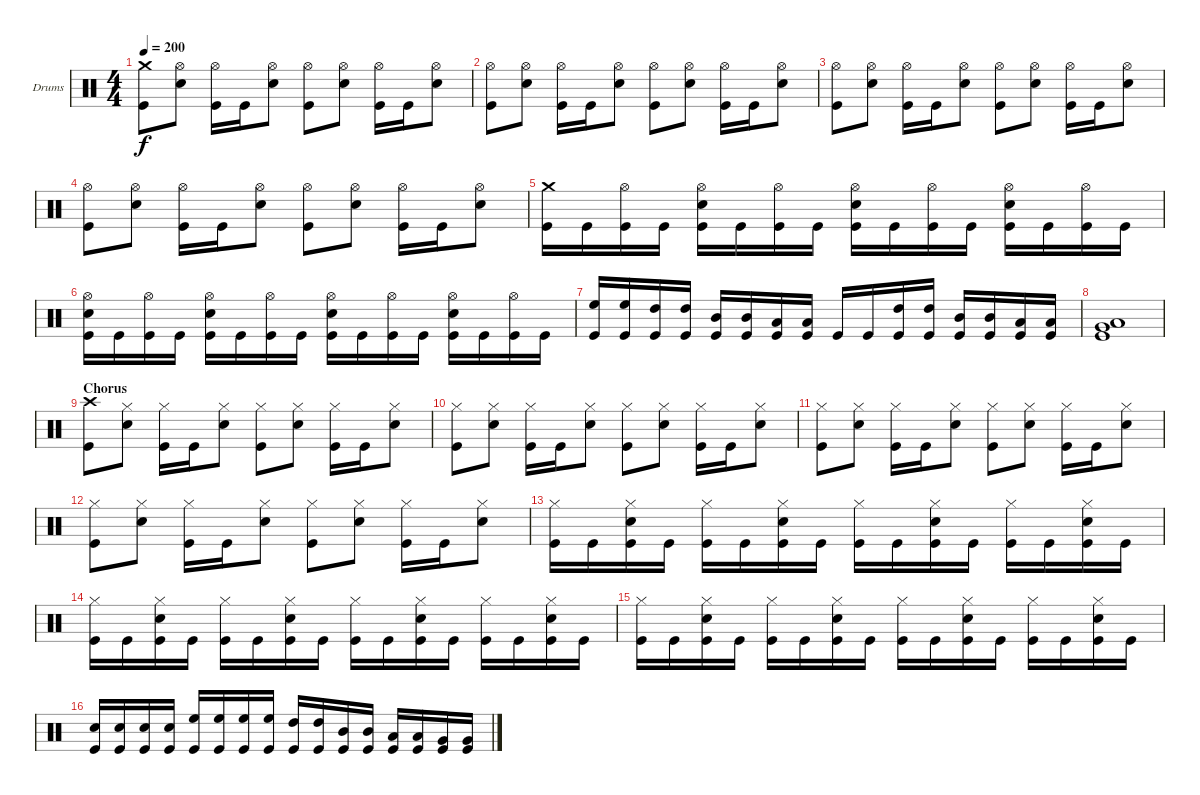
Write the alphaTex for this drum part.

\bracketExtendMode groupsimilarinstruments
\firstSystemTrackNameOrientation horizontal
\otherSystemsTrackNameOrientation horizontal
\track ("Drumkit" "Drums") {instrument percussion}
\staff {score}
\articulation defaults
\ts (4 4)
\tempo 200
\clef neutral
\ks aminor
("Kick (hit)" "Crash medium (hit)").8{dy f} ("Snare (hit) 2" "Hi-Hat (open)").8 ("Kick (hit)" "Hi-Hat (open)").16 "Kick (hit)".16 ("Snare (hit) 2" "Hi-Hat (open)").8 ("Kick (hit)" "Hi-Hat (open)").8 ("Snare (hit) 2" "Hi-Hat (open)").8 ("Kick (hit)" "Hi-Hat (open)").16 "Kick (hit)".16 ("Snare (hit) 2" "Hi-Hat (open)").8 |
("Kick (hit)" "Hi-Hat (open)").8 ("Snare (hit) 2" "Hi-Hat (open)").8 ("Kick (hit)" "Hi-Hat (open)").16 "Kick (hit)".16 ("Snare (hit) 2" "Hi-Hat (open)").8 ("Kick (hit)" "Hi-Hat (open)").8 ("Snare (hit) 2" "Hi-Hat (open)").8 ("Kick (hit)" "Hi-Hat (open)").16 "Kick (hit)".16 ("Snare (hit) 2" "Hi-Hat (open)").8 |
("Kick (hit)" "Hi-Hat (open)").8 ("Snare (hit) 2" "Hi-Hat (open)").8 ("Kick (hit)" "Hi-Hat (open)").16 "Kick (hit)".16 ("Snare (hit) 2" "Hi-Hat (open)").8 ("Kick (hit)" "Hi-Hat (open)").8 ("Snare (hit) 2" "Hi-Hat (open)").8 ("Kick (hit)" "Hi-Hat (open)").16 "Kick (hit)".16 ("Snare (hit) 2" "Hi-Hat (open)").8 |
("Kick (hit)" "Hi-Hat (open)").8 ("Snare (hit) 2" "Hi-Hat (open)").8 ("Kick (hit)" "Hi-Hat (open)").16 "Kick (hit)".16 ("Snare (hit) 2" "Hi-Hat (open)").8 ("Kick (hit)" "Hi-Hat (open)").8 ("Snare (hit) 2" "Hi-Hat (open)").8 ("Kick (hit)" "Hi-Hat (open)").16 "Kick (hit)".16 ("Snare (hit) 2" "Hi-Hat (open)").8 |
("Kick (hit)" "Crash medium (hit)").16 "Kick (hit)".16 ("Kick (hit)" "Hi-Hat (open)").16 "Kick (hit)".16 ("Kick (hit)" "Snare (hit) 2" "Hi-Hat (open)").16 "Kick (hit)".16 ("Kick (hit)" "Hi-Hat (open)").16 "Kick (hit)".16 ("Kick (hit)" "Snare (hit) 2" "Hi-Hat (open)").16 "Kick (hit)".16 ("Kick (hit)" "Hi-Hat (open)").16 "Kick (hit)".16 ("Kick (hit)" "Snare (hit) 2" "Hi-Hat (open)").16 "Kick (hit)".16 ("Kick (hit)" "Hi-Hat (open)").16 "Kick (hit)".16 |
("Kick (hit)" "Snare (hit) 2" "Hi-Hat (open)").16 "Kick (hit)".16 ("Kick (hit)" "Hi-Hat (open)").16 "Kick (hit)".16 ("Kick (hit)" "Snare (hit) 2" "Hi-Hat (open)").16 "Kick (hit)".16 ("Kick (hit)" "Hi-Hat (open)").16 "Kick (hit)".16 ("Kick (hit)" "Snare (hit) 2" "Hi-Hat (open)").16 "Kick (hit)".16 ("Kick (hit)" "Hi-Hat (open)").16 "Kick (hit)".16 ("Kick (hit)" "Snare (hit) 2" "Hi-Hat (open)").16 "Kick (hit)".16 ("Kick (hit)" "Hi-Hat (open)").16 "Kick (hit)".16 |
("Kick (hit)" "High Floor Tom (hit)").16 ("Kick (hit)" "High Floor Tom (hit)").16 ("Kick (hit)" "High Tom (hit)").16 ("Kick (hit)" "High Tom (hit)").16 ("Kick (hit)" "Mid Tom (hit)").16 ("Kick (hit)" "Mid Tom (hit)").16 ("Kick (hit)" "Low Tom (hit)").16 ("Kick (hit)" "Low Tom (hit)").16 "Kick (hit)".16 "Kick (hit)".16 ("Kick (hit)" "High Tom (hit)").16 ("Kick (hit)" "High Tom (hit)").16 ("Kick (hit)" "Mid Tom (hit)").16 ("Kick (hit)" "Mid Tom (hit)").16 ("Kick (hit)" "Low Tom (hit)").16 ("Kick (hit)" "Low Tom (hit)").16 |
("Kick (hit)" "Low Tom (hit)" "Very Low Tom (hit)").1 |
\section ("" "Chorus")
("Kick (hit)" "Crash high (hit)").8 ("Snare (hit) 2" "Hi-Hat (closed)").8 ("Kick (hit)" "Hi-Hat (closed)").16 "Kick (hit)".16 ("Snare (hit) 2" "Hi-Hat (closed)").8 ("Kick (hit)" "Hi-Hat (closed)").8 ("Snare (hit) 2" "Hi-Hat (closed)").8 ("Kick (hit)" "Hi-Hat (closed)").16 "Kick (hit)".16 ("Snare (hit) 2" "Hi-Hat (closed)").8 |
("Kick (hit)" "Hi-Hat (closed)").8 ("Snare (hit) 2" "Hi-Hat (closed)").8 ("Kick (hit)" "Hi-Hat (closed)").16 "Kick (hit)".16 ("Snare (hit) 2" "Hi-Hat (closed)").8 ("Kick (hit)" "Hi-Hat (closed)").8 ("Snare (hit) 2" "Hi-Hat (closed)").8 ("Kick (hit)" "Hi-Hat (closed)").16 "Kick (hit)".16 ("Snare (hit) 2" "Hi-Hat (closed)").8 |
("Kick (hit)" "Hi-Hat (closed)").8 ("Snare (hit) 2" "Hi-Hat (closed)").8 ("Kick (hit)" "Hi-Hat (closed)").16 "Kick (hit)".16 ("Snare (hit) 2" "Hi-Hat (closed)").8 ("Kick (hit)" "Hi-Hat (closed)").8 ("Snare (hit) 2" "Hi-Hat (closed)").8 ("Kick (hit)" "Hi-Hat (closed)").16 "Kick (hit)".16 ("Snare (hit) 2" "Hi-Hat (closed)").8 |
("Kick (hit)" "Hi-Hat (closed)").8 ("Snare (hit) 2" "Hi-Hat (closed)").8 ("Kick (hit)" "Hi-Hat (closed)").16 "Kick (hit)".16 ("Snare (hit) 2" "Hi-Hat (closed)").8 ("Kick (hit)" "Hi-Hat (closed)").8 ("Snare (hit) 2" "Hi-Hat (closed)").8 ("Kick (hit)" "Hi-Hat (closed)").16 "Kick (hit)".16 ("Snare (hit) 2" "Hi-Hat (closed)").8 |
("Kick (hit)" "Hi-Hat (closed)").16 "Kick (hit)".16 ("Kick (hit)" "Snare (hit) 2" "Hi-Hat (closed)").16 "Kick (hit)".16 ("Kick (hit)" "Hi-Hat (closed)").16 "Kick (hit)".16 ("Kick (hit)" "Snare (hit) 2" "Hi-Hat (closed)").16 "Kick (hit)".16 ("Kick (hit)" "Hi-Hat (closed)").16 "Kick (hit)".16 ("Kick (hit)" "Snare (hit) 2" "Hi-Hat (closed)").16 "Kick (hit)".16 ("Kick (hit)" "Hi-Hat (closed)").16 "Kick (hit)".16 ("Kick (hit)" "Snare (hit) 2" "Hi-Hat (closed)").16 "Kick (hit)".16 |
("Kick (hit)" "Hi-Hat (closed)").16 "Kick (hit)".16 ("Kick (hit)" "Snare (hit) 2" "Hi-Hat (closed)").16 "Kick (hit)".16 ("Kick (hit)" "Hi-Hat (closed)").16 "Kick (hit)".16 ("Kick (hit)" "Snare (hit) 2" "Hi-Hat (closed)").16 "Kick (hit)".16 ("Kick (hit)" "Hi-Hat (closed)").16 "Kick (hit)".16 ("Kick (hit)" "Snare (hit) 2" "Hi-Hat (closed)").16 "Kick (hit)".16 ("Kick (hit)" "Hi-Hat (closed)").16 "Kick (hit)".16 ("Kick (hit)" "Snare (hit) 2" "Hi-Hat (closed)").16 "Kick (hit)".16 |
("Kick (hit)" "Hi-Hat (closed)").16 "Kick (hit)".16 ("Kick (hit)" "Snare (hit) 2" "Hi-Hat (closed)").16 "Kick (hit)".16 ("Kick (hit)" "Hi-Hat (closed)").16 "Kick (hit)".16 ("Kick (hit)" "Snare (hit) 2" "Hi-Hat (closed)").16 "Kick (hit)".16 ("Kick (hit)" "Hi-Hat (closed)").16 "Kick (hit)".16 ("Kick (hit)" "Snare (hit) 2" "Hi-Hat (closed)").16 "Kick (hit)".16 ("Kick (hit)" "Hi-Hat (closed)").16 "Kick (hit)".16 ("Kick (hit)" "Snare (hit) 2" "Hi-Hat (closed)").16 "Kick (hit)".16 |
("Kick (hit)" "Snare (hit) 2").16 ("Kick (hit)" "Snare (hit) 2").16 ("Kick (hit)" "Snare (hit) 2").16 ("Kick (hit)" "Snare (hit) 2").16 ("Kick (hit)" "High Floor Tom (hit)").16 ("Kick (hit)" "High Floor Tom (hit)").16 ("Kick (hit)" "High Floor Tom (hit)").16 ("Kick (hit)" "High Floor Tom (hit)").16 ("Kick (hit)" "High Tom (hit)").16 ("Kick (hit)" "High Tom (hit)").16 ("Kick (hit)" "Mid Tom (hit)").16 ("Kick (hit)" "Mid Tom (hit)").16 ("Kick (hit)" "Low Tom (hit)").16 ("Kick (hit)" "Low Tom (hit)").16 ("Kick (hit)" "Very Low Tom (hit)").16 ("Kick (hit)" "Very Low Tom (hit)").16
